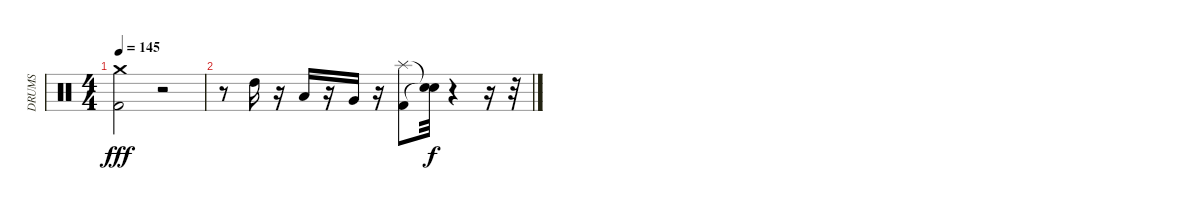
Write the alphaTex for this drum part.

\track ("DRUMS" "DRUMS") {instrument percussion}
\staff {score}
\articulation defaults
\ts (4 4)
\tempo 145
\clef neutral
\ks c
("Kick (hit) 2" "Crash medium (hit)").2{dy fff} r.2 |
r.8 "High Tom (hit)".16 r.16 "Low Tom (hit)".16 r.16 "Very Low Tom (hit)".16 r.16 ("Kick (hit) 2" "Splash (hit)").8 ("Snare (hit)"{t} "Snare (hit)"{t}).32{dy f} r.4 r.16 r.32
